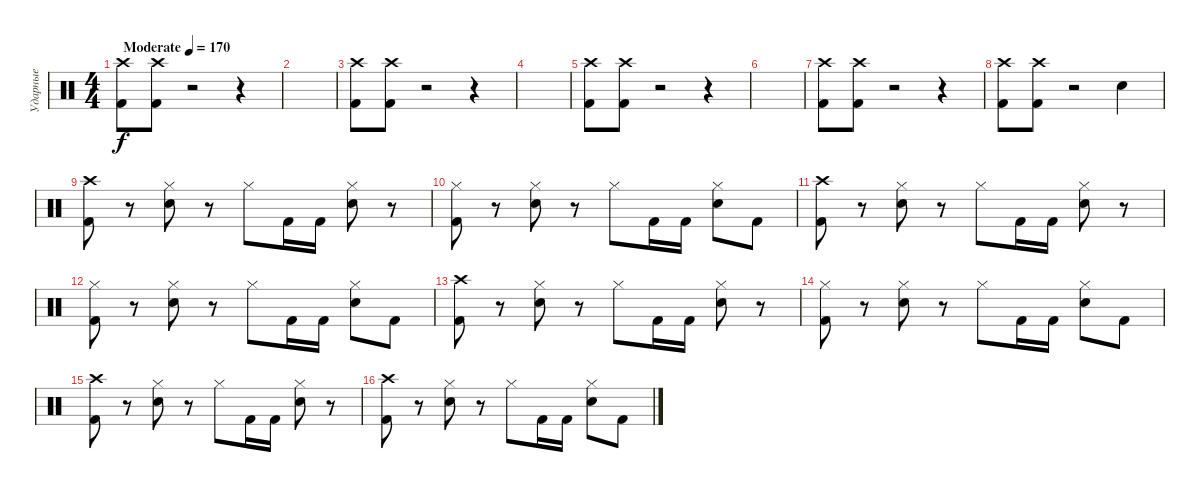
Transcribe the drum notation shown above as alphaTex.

\track ("Ударные" "Ударные") {instrument percussion}
\staff {score}
\articulation defaults
\ts (4 4)
\tempo (170 "Moderate")
\clef neutral
\ks c
("Crash high (hit)" "Kick (hit) 2").8{dy f} ("Crash high (hit)" "Kick (hit) 2").8 r.2 r.4 |
|
("Crash high (hit)" "Kick (hit) 2").8 ("Crash high (hit)" "Kick (hit) 2").8 r.2 r.4 |
|
("Crash high (hit)" "Kick (hit) 2").8 ("Crash high (hit)" "Kick (hit) 2").8 r.2 r.4 |
|
("Crash high (hit)" "Kick (hit) 2").8 ("Crash high (hit)" "Kick (hit) 2").8 r.2 r.4 |
("Crash high (hit)" "Kick (hit) 2").8 ("Crash high (hit)" "Kick (hit) 2").8 r.2 "Electric Snare (hit)".4 |
("Crash high (hit)" "Kick (hit) 2").8 r.8 ("Hi-Hat (closed)" "Electric Snare (hit)").8 r.8 "Hi-Hat (closed)".8 "Kick (hit) 2".16 "Kick (hit) 2".16 ("Hi-Hat (closed)" "Electric Snare (hit)").8 r.8 |
("Hi-Hat (closed)" "Kick (hit) 2").8 r.8 ("Hi-Hat (closed)" "Electric Snare (hit)").8 r.8 "Hi-Hat (closed)".8 "Kick (hit) 2".16 "Kick (hit) 2".16 ("Hi-Hat (closed)" "Electric Snare (hit)").8 "Kick (hit) 2".8 |
("Crash high (hit)" "Kick (hit) 2").8 r.8 ("Hi-Hat (closed)" "Electric Snare (hit)").8 r.8 "Hi-Hat (closed)".8 "Kick (hit) 2".16 "Kick (hit) 2".16 ("Hi-Hat (closed)" "Electric Snare (hit)").8 r.8 |
("Hi-Hat (closed)" "Kick (hit) 2").8 r.8 ("Hi-Hat (closed)" "Electric Snare (hit)").8 r.8 "Hi-Hat (closed)".8 "Kick (hit) 2".16 "Kick (hit) 2".16 ("Hi-Hat (closed)" "Electric Snare (hit)").8 "Kick (hit) 2".8 |
("Crash high (hit)" "Kick (hit) 2").8 r.8 ("Hi-Hat (closed)" "Electric Snare (hit)").8 r.8 "Hi-Hat (closed)".8 "Kick (hit) 2".16 "Kick (hit) 2".16 ("Hi-Hat (closed)" "Electric Snare (hit)").8 r.8 |
("Hi-Hat (closed)" "Kick (hit) 2").8 r.8 ("Hi-Hat (closed)" "Electric Snare (hit)").8 r.8 "Hi-Hat (closed)".8 "Kick (hit) 2".16 "Kick (hit) 2".16 ("Hi-Hat (closed)" "Electric Snare (hit)").8 "Kick (hit) 2".8 |
("Crash high (hit)" "Kick (hit) 2").8 r.8 ("Hi-Hat (closed)" "Electric Snare (hit)").8 r.8 "Hi-Hat (closed)".8 "Kick (hit) 2".16 "Kick (hit) 2".16 ("Hi-Hat (closed)" "Electric Snare (hit)").8 r.8 |
("Crash high (hit)" "Kick (hit) 2").8 r.8 ("Hi-Hat (closed)" "Electric Snare (hit)").8 r.8 "Hi-Hat (closed)".8 "Kick (hit) 2".16 "Kick (hit) 2".16 ("Hi-Hat (closed)" "Electric Snare (hit)").8 "Kick (hit) 2".8
